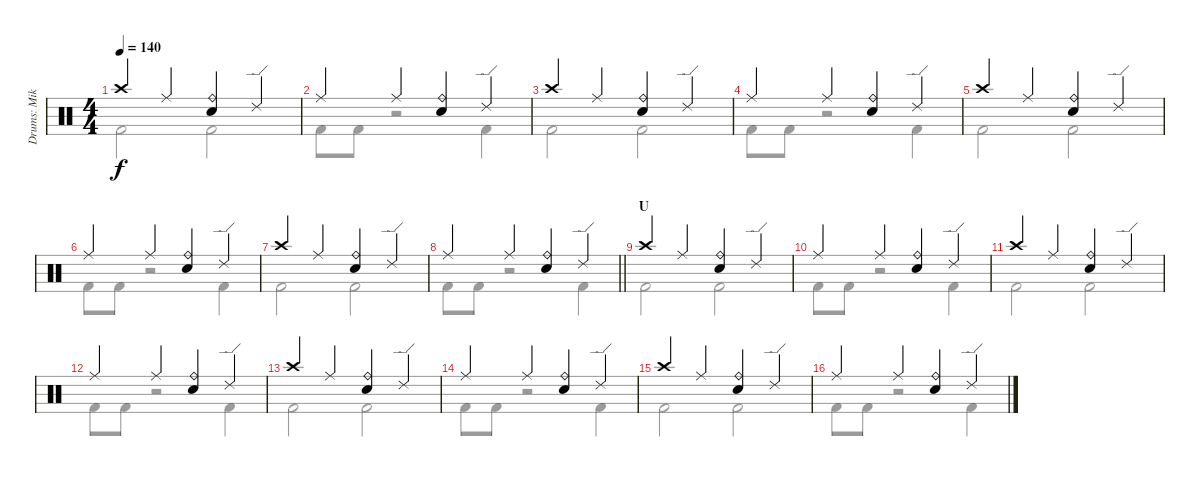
\track ("Drums: Mike" "Drums: Mik") {instrument percussion}
\staff {score}
\articulation defaults
\voice
\ts (4 4)
\tempo 140
\clef neutral
\ks c "Crash high (hit)".4{dy f} "Ride (middle)".4
("Ride (bell)" "Snare (hit) 2").4 "Ride (edge) 2".4 |
"Ride (middle)".4 "Ride (middle)".4 ("Ride (bell)" "Snare (hit) 2").4 "Ride (edge) 2".4 |
"Crash high (hit)".4 "Ride (middle)".4 ("Ride (bell)" "Snare (hit) 2").4 "Ride (edge) 2".4 |
"Ride (middle)".4 "Ride (middle)".4 ("Ride (bell)" "Snare (hit) 2").4 "Ride (edge) 2".4 |
"Crash high (hit)".4 "Ride (middle)".4 ("Ride (bell)" "Snare (hit) 2").4 "Ride (edge) 2".4 |
"Ride (middle)".4 "Ride (middle)".4 ("Ride (bell)" "Snare (hit) 2").4 "Ride (edge) 2".4 |
"Crash high (hit)".4 "Ride (middle)".4 ("Ride (bell)" "Snare (hit) 2").4 "Ride (edge) 2".4 |
\barLineRight lightlight "Ride (middle)".4 "Ride (middle)".4
("Ride (bell)" "Snare (hit) 2").4 "Ride (edge) 2".4 |
\section ("" "U")
"Crash high (hit)".4 "Ride (middle)".4 ("Ride (bell)" "Snare (hit) 2").4 "Ride (edge) 2".4 |
"Ride (middle)".4 "Ride (middle)".4 ("Ride (bell)" "Snare (hit) 2").4 "Ride (edge) 2".4 |
"Crash high (hit)".4 "Ride (middle)".4 ("Ride (bell)" "Snare (hit) 2").4 "Ride (edge) 2".4 |
"Ride (middle)".4 "Ride (middle)".4 ("Ride (bell)" "Snare (hit) 2").4 "Ride (edge) 2".4 |
"Crash high (hit)".4 "Ride (middle)".4 ("Ride (bell)" "Snare (hit) 2").4 "Ride (edge) 2".4 |
"Ride (middle)".4 "Ride (middle)".4 ("Ride (bell)" "Snare (hit) 2").4 "Ride (edge) 2".4 |
"Crash high (hit)".4 "Ride (middle)".4 ("Ride (bell)" "Snare (hit) 2").4 "Ride (edge) 2".4 |
"Ride (middle)".4 "Ride (middle)".4 ("Ride (bell)" "Snare (hit) 2").4 "Ride (edge) 2".4
\voice
\clef neutral
\ottava regular
\simile none
\ks c "Kick (hit) 2".2{dy f} "Kick (hit) 2".2
|
"Kick (hit) 2".8 "Kick (hit) 2".8 r.2 "Kick (hit) 2".4 |
"Kick (hit) 2".2 "Kick (hit) 2".2 |
"Kick (hit) 2".8 "Kick (hit) 2".8 r.2 "Kick (hit) 2".4 |
"Kick (hit) 2".2 "Kick (hit) 2".2 |
"Kick (hit) 2".8 "Kick (hit) 2".8 r.2 "Kick (hit) 2".4 |
"Kick (hit) 2".2 "Kick (hit) 2".2 |
\barLineRight lightlight "Kick (hit) 2".8 "Kick (hit) 2".8
r.2 "Kick (hit) 2".4 |
"Kick (hit) 2".2 "Kick (hit) 2".2 |
"Kick (hit) 2".8 "Kick (hit) 2".8 r.2 "Kick (hit) 2".4 |
"Kick (hit) 2".2 "Kick (hit) 2".2 |
"Kick (hit) 2".8 "Kick (hit) 2".8 r.2 "Kick (hit) 2".4 |
"Kick (hit) 2".2 "Kick (hit) 2".2 |
"Kick (hit) 2".8 "Kick (hit) 2".8 r.2 "Kick (hit) 2".4 |
"Kick (hit) 2".2 "Kick (hit) 2".2 |
"Kick (hit) 2".8 "Kick (hit) 2".8 r.2 "Kick (hit) 2".4
